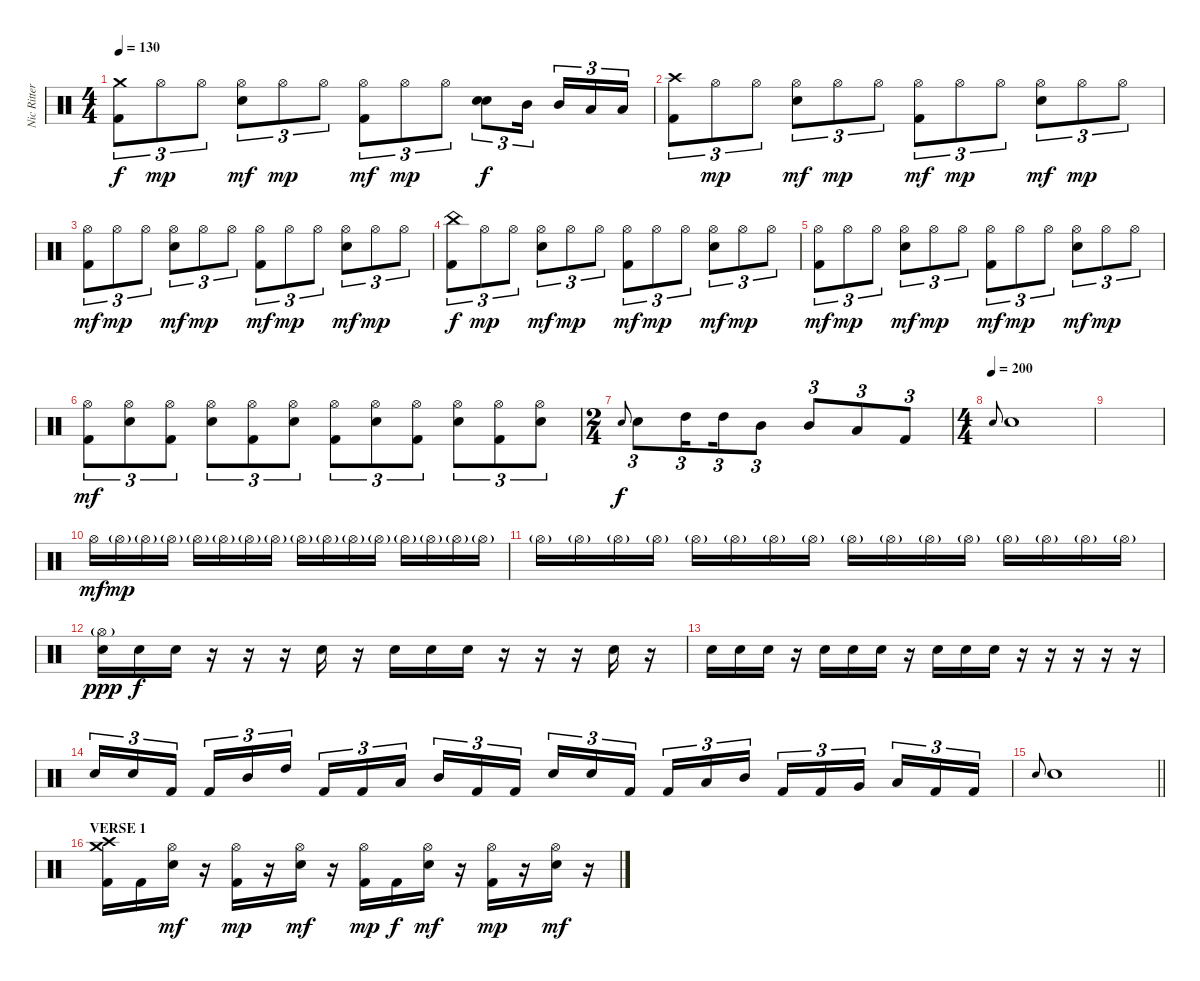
\track ("Nic Ritter" "Nic Ritter") {instrument percussion}
\staff {score}
\articulation defaults
\ts (4 4)
\tempo 130
\clef neutral
\ks c
("Crash medium (hit)" "Kick (hit) 2").8{tu (3 2) dy f} "Hi-Hat (open)".8{tu (3 2) dy mp} "Hi-Hat (open)".8{tu (3 2)} ("Hi-Hat (open)" "Electric Snare (hit)").8{tu (3 2) dy mf} "Hi-Hat (open)".8{tu (3 2) dy mp} "Hi-Hat (open)".8{tu (3 2)} ("Hi-Hat (open)" "Kick (hit) 2").8{tu (3 2) dy mf} "Hi-Hat (open)".8{tu (3 2) dy mp} "Hi-Hat (open)".8{tu (3 2)} ("Electric Snare (hit)" "Electric Snare (hit)").8{tu (3 2) dy f} "Mid Tom (hit)".16{tu (3 2) beam splitsecondary} "Mid Tom (hit)".16{tu (3 2)} "Low Tom (hit)".16{tu (3 2)} "Low Tom (hit)".16{tu (3 2)} |
("Crash high (hit)" "Kick (hit) 2").8{tu (3 2)} "Hi-Hat (open)".8{tu (3 2) dy mp} "Hi-Hat (open)".8{tu (3 2)} ("Hi-Hat (open)" "Electric Snare (hit)").8{tu (3 2) dy mf} "Hi-Hat (open)".8{tu (3 2) dy mp} "Hi-Hat (open)".8{tu (3 2)} ("Hi-Hat (open)" "Kick (hit) 2").8{tu (3 2) dy mf} "Hi-Hat (open)".8{tu (3 2) dy mp} "Hi-Hat (open)".8{tu (3 2)} ("Hi-Hat (open)" "Electric Snare (hit)").8{tu (3 2) dy mf} "Hi-Hat (open)".8{tu (3 2) dy mp} "Hi-Hat (open)".8{tu (3 2)} |
("Hi-Hat (open)" "Kick (hit) 2").8{tu (3 2) dy mf} "Hi-Hat (open)".8{tu (3 2) dy mp} "Hi-Hat (open)".8{tu (3 2)} ("Hi-Hat (open)" "Electric Snare (hit)").8{tu (3 2) dy mf} "Hi-Hat (open)".8{tu (3 2) dy mp} "Hi-Hat (open)".8{tu (3 2)} ("Hi-Hat (open)" "Kick (hit) 2").8{tu (3 2) dy mf} "Hi-Hat (open)".8{tu (3 2) dy mp} "Hi-Hat (open)".8{tu (3 2)} ("Hi-Hat (open)" "Electric Snare (hit)").8{tu (3 2) dy mf} "Hi-Hat (open)".8{tu (3 2) dy mp} "Hi-Hat (open)".8{tu (3 2)} |
("China (hit)" "Kick (hit) 2").8{tu (3 2) dy f} "Hi-Hat (open)".8{tu (3 2) dy mp} "Hi-Hat (open)".8{tu (3 2)} ("Hi-Hat (open)" "Electric Snare (hit)").8{tu (3 2) dy mf} "Hi-Hat (open)".8{tu (3 2) dy mp} "Hi-Hat (open)".8{tu (3 2)} ("Hi-Hat (open)" "Kick (hit) 2").8{tu (3 2) dy mf} "Hi-Hat (open)".8{tu (3 2) dy mp} "Hi-Hat (open)".8{tu (3 2)} ("Hi-Hat (open)" "Electric Snare (hit)").8{tu (3 2) dy mf} "Hi-Hat (open)".8{tu (3 2) dy mp} "Hi-Hat (open)".8{tu (3 2)} |
("Hi-Hat (open)" "Kick (hit) 2").8{tu (3 2) dy mf} "Hi-Hat (open)".8{tu (3 2) dy mp} "Hi-Hat (open)".8{tu (3 2)} ("Hi-Hat (open)" "Electric Snare (hit)").8{tu (3 2) dy mf} "Hi-Hat (open)".8{tu (3 2) dy mp} "Hi-Hat (open)".8{tu (3 2)} ("Hi-Hat (open)" "Kick (hit) 2").8{tu (3 2) dy mf} "Hi-Hat (open)".8{tu (3 2) dy mp} "Hi-Hat (open)".8{tu (3 2)} ("Hi-Hat (open)" "Electric Snare (hit)").8{tu (3 2) dy mf} "Hi-Hat (open)".8{tu (3 2) dy mp} "Hi-Hat (open)".8{tu (3 2)} |
("Hi-Hat (open)" "Kick (hit) 2").8{tu (3 2) dy mf} ("Hi-Hat (open)" "Electric Snare (hit)").8{tu (3 2)} ("Hi-Hat (open)" "Kick (hit) 2").8{tu (3 2)} ("Hi-Hat (open)" "Electric Snare (hit)").8{tu (3 2)} ("Hi-Hat (open)" "Kick (hit) 2").8{tu (3 2)} ("Hi-Hat (open)" "Electric Snare (hit)").8{tu (3 2)} ("Hi-Hat (open)" "Kick (hit) 2").8{tu (3 2)} ("Hi-Hat (open)" "Electric Snare (hit)").8{tu (3 2)} ("Hi-Hat (open)" "Kick (hit) 2").8{tu (3 2)} ("Hi-Hat (open)" "Electric Snare (hit)").8{tu (3 2)} ("Hi-Hat (open)" "Kick (hit) 2").8{tu (3 2)} ("Hi-Hat (open)" "Electric Snare (hit)").8{tu (3 2)} |
\ts (2 4)
"Electric Snare (hit)".8{gr onbeat dy f} "Electric Snare (hit)".8{tu (3 2)} "High Tom (hit)".16{tu (3 2) beam splitsecondary} "High Tom (hit)".16{tu (3 2)} "Mid Tom (hit)".8{tu (3 2)} "Mid Tom (hit)".8{tu (3 2)} "Low Tom (hit)".8{tu (3 2)} "Kick (hit) 2".8{tu (3 2)} |
\ts (4 4)
\tempo (200)
"Electric Snare (hit)".8{gr onbeat} "Electric Snare (hit)".1 |
|
"Hi-Hat (open)".16{dy mf} "Hi-Hat (open)"{g}.16{dy mp} "Hi-Hat (open)"{g}.16 "Hi-Hat (open)"{g}.16 "Hi-Hat (open)"{g}.16 "Hi-Hat (open)"{g}.16 "Hi-Hat (open)"{g}.16 "Hi-Hat (open)"{g}.16 "Hi-Hat (open)"{g}.16 "Hi-Hat (open)"{g}.16 "Hi-Hat (open)"{g}.16 "Hi-Hat (open)"{g}.16 "Hi-Hat (open)"{g}.16 "Hi-Hat (open)"{g}.16 "Hi-Hat (open)"{g}.16 "Hi-Hat (open)"{g}.16 |
"Hi-Hat (open)"{g}.16 "Hi-Hat (open)"{g}.16 "Hi-Hat (open)"{g}.16 "Hi-Hat (open)"{g}.16 "Hi-Hat (open)"{g}.16 "Hi-Hat (open)"{g}.16 "Hi-Hat (open)"{g}.16 "Hi-Hat (open)"{g}.16 "Hi-Hat (open)"{g}.16 "Hi-Hat (open)"{g}.16 "Hi-Hat (open)"{g}.16 "Hi-Hat (open)"{g}.16 "Hi-Hat (open)"{g}.16 "Hi-Hat (open)"{g}.16 "Hi-Hat (open)"{g}.16 "Hi-Hat (open)"{g}.16 |
("Hi-Hat (open)"{g} "Electric Snare (hit)").16{dy ppp} "Electric Snare (hit)".16{dy f} "Electric Snare (hit)".16 r.16 r.16 r.16 "Electric Snare (hit)".16 r.16 "Electric Snare (hit)".16 "Electric Snare (hit)".16 "Electric Snare (hit)".16 r.16 r.16 r.16 "Electric Snare (hit)".16 r.16 |
"Electric Snare (hit)".16 "Electric Snare (hit)".16 "Electric Snare (hit)".16 r.16 "Electric Snare (hit)".16 "Electric Snare (hit)".16 "Electric Snare (hit)".16 r.16 "Electric Snare (hit)".16 "Electric Snare (hit)".16 "Electric Snare (hit)".16 r.16 r.16 r.16 r.16 r.16 |
"Electric Snare (hit)".16{tu (3 2)} "Electric Snare (hit)".16{tu (3 2)} "Kick (hit) 2".16{tu (3 2) beam splitsecondary} "Kick (hit) 2".16{tu (3 2)} "Mid Tom (hit)".16{tu (3 2)} "High Tom (hit)".16{tu (3 2)} "Kick (hit) 2".16{tu (3 2)} "Kick (hit) 2".16{tu (3 2)} "Low Tom (hit)".16{tu (3 2) beam splitsecondary} "Mid Tom (hit)".16{tu (3 2)} "Kick (hit) 2".16{tu (3 2)} "Kick (hit) 2".16{tu (3 2)} "Electric Snare (hit)".16{tu (3 2)} "Electric Snare (hit)".16{tu (3 2)} "Kick (hit) 2".16{tu (3 2) beam splitsecondary} "Kick (hit) 2".16{tu (3 2)} "Low Tom (hit)".16{tu (3 2)} "Mid Tom (hit)".16{tu (3 2)} "Kick (hit) 2".16{tu (3 2)} "Kick (hit) 2".16{tu (3 2)} "Very Low Tom (hit)".16{tu (3 2) beam splitsecondary} "Low Tom (hit)".16{tu (3 2)} "Kick (hit) 2".16{tu (3 2)} "Kick (hit) 2".16{tu (3 2)} |
\barLineRight lightlight "Electric Snare (hit)".8{gr onbeat} "Electric Snare (hit)".1
|
\section ("" "VERSE 1")
("Crash medium (hit)" "Crash high (hit)" "Kick (hit) 2").16 "Kick (hit) 2".16 ("Hi-Hat (open)" "Electric Snare (hit)").16{dy mf} r.16 ("Hi-Hat (open)" "Kick (hit) 2").16{dy mp} r.16 ("Hi-Hat (open)" "Electric Snare (hit)").16{dy mf} r.16 ("Hi-Hat (open)" "Kick (hit) 2").16{dy mp} "Kick (hit) 2".16{dy f} ("Hi-Hat (open)" "Electric Snare (hit)").16{dy mf} r.16 ("Hi-Hat (open)" "Kick (hit) 2").16{dy mp} r.16 ("Hi-Hat (open)" "Electric Snare (hit)").16{dy mf} r.16
